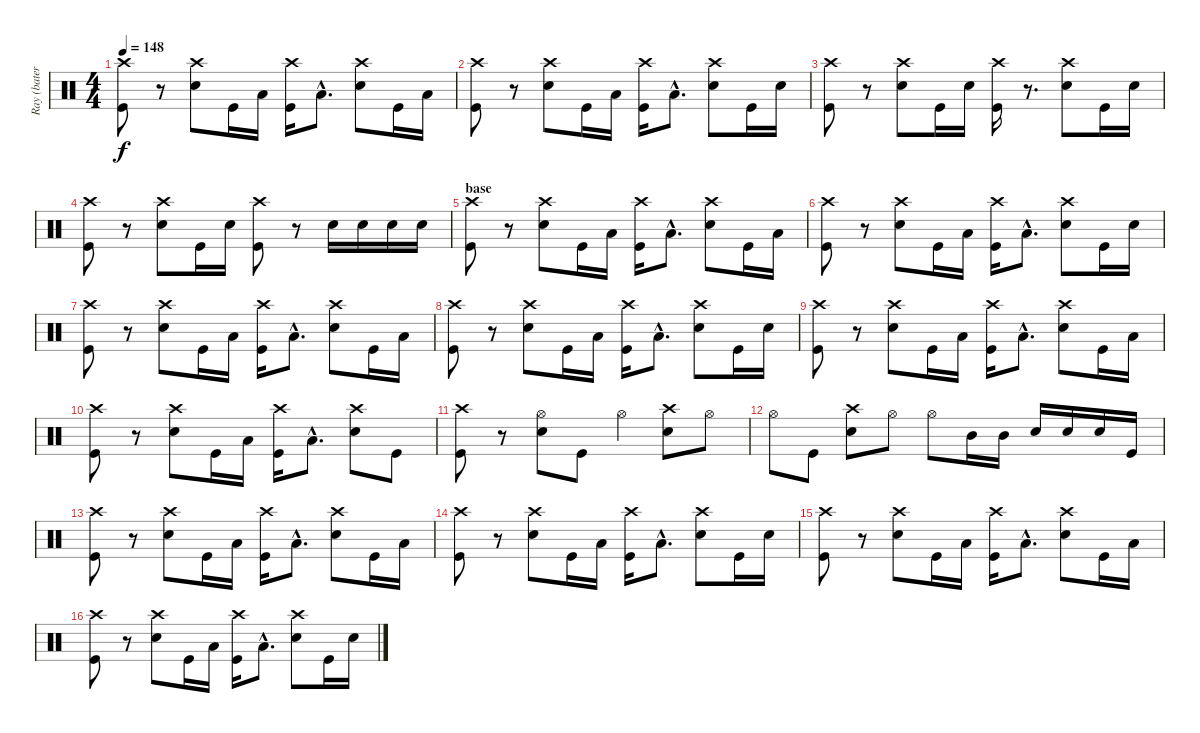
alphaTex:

\track ("Ray (batería)" "Ray (bater") {instrument percussion}
\staff {score}
\articulation defaults
\ts (4 4)
\tempo 148
\clef neutral
\ks c
("Crash high (hit)" "Kick (hit)").8{dy f} r.8 ("Crash high (hit)" "Snare (hit) 2").8 "Kick (hit)".16 "Low Tom (hit)".16 ("Crash high (hit)" "Kick (hit)").16 "Low Tom (hit)"{hac}.8{d} ("Crash high (hit)" "Snare (hit) 2").8 "Kick (hit)".16 "Low Tom (hit)".16 |
("Crash high (hit)" "Kick (hit)").8 r.8 ("Crash high (hit)" "Snare (hit) 2").8 "Kick (hit)".16 "Low Tom (hit)".16 ("Crash high (hit)" "Kick (hit)").16 "Low Tom (hit)"{hac}.8{d} ("Crash high (hit)" "Snare (hit) 2").8 "Kick (hit)".16 "Snare (hit) 2".16 |
("Crash high (hit)" "Kick (hit)").8 r.8 ("Crash high (hit)" "Snare (hit) 2").8 "Kick (hit)".16 "Snare (hit) 2".16 ("Crash high (hit)" "Kick (hit)").16 r.8{d} ("Crash high (hit)" "Snare (hit) 2").8 "Kick (hit)".16 "Snare (hit) 2".16 |
("Crash high (hit)" "Kick (hit)").8 r.8 ("Crash high (hit)" "Snare (hit) 2").8 "Kick (hit)".16 "Snare (hit) 2".16 ("Crash high (hit)" "Kick (hit)").8 r.8 "Snare (hit) 2".16 "Snare (hit) 2".16 "Snare (hit) 2".16 "Snare (hit) 2".16 |
\section ("" "base")
("Crash high (hit)" "Kick (hit)").8 r.8 ("Crash high (hit)" "Snare (hit) 2").8 "Kick (hit)".16 "Low Tom (hit)".16 ("Crash high (hit)" "Kick (hit)").16 "Low Tom (hit)"{hac}.8{d} ("Crash high (hit)" "Snare (hit) 2").8 "Kick (hit)".16 "Low Tom (hit)".16 |
("Crash high (hit)" "Kick (hit)").8 r.8 ("Crash high (hit)" "Snare (hit) 2").8 "Kick (hit)".16 "Low Tom (hit)".16 ("Crash high (hit)" "Kick (hit)").16 "Low Tom (hit)"{hac}.8{d} ("Crash high (hit)" "Snare (hit) 2").8 "Kick (hit)".16 "Snare (hit) 2".16 |
("Crash high (hit)" "Kick (hit)").8 r.8 ("Crash high (hit)" "Snare (hit) 2").8 "Kick (hit)".16 "Low Tom (hit)".16 ("Crash high (hit)" "Kick (hit)").16 "Low Tom (hit)"{hac}.8{d} ("Crash high (hit)" "Snare (hit) 2").8 "Kick (hit)".16 "Low Tom (hit)".16 |
("Crash high (hit)" "Kick (hit)").8 r.8 ("Crash high (hit)" "Snare (hit) 2").8 "Kick (hit)".16 "Low Tom (hit)".16 ("Crash high (hit)" "Kick (hit)").16 "Low Tom (hit)"{hac}.8{d} ("Crash high (hit)" "Snare (hit) 2").8 "Kick (hit)".16 "Snare (hit) 2".16 |
("Crash high (hit)" "Kick (hit)").8 r.8 ("Crash high (hit)" "Snare (hit) 2").8 "Kick (hit)".16 "Low Tom (hit)".16 ("Crash high (hit)" "Kick (hit)").16 "Low Tom (hit)"{hac}.8{d} ("Crash high (hit)" "Snare (hit) 2").8 "Kick (hit)".16 "Low Tom (hit)".16 |
("Crash high (hit)" "Kick (hit)").8 r.8 ("Crash high (hit)" "Snare (hit) 2").8 "Kick (hit)".16 "Low Tom (hit)".16 ("Crash high (hit)" "Kick (hit)").16 "Low Tom (hit)"{hac}.8{d} ("Crash high (hit)" "Snare (hit) 2").8 "Kick (hit)".8 |
("Crash high (hit)" "Kick (hit)").8 r.8 ("Hi-Hat (open)" "Snare (hit) 2").8 "Kick (hit)".8 "Hi-Hat (open)".4 ("Crash high (hit)" "Snare (hit) 2").8 "Hi-Hat (open)".8 |
"Hi-Hat (open)".8 "Kick (hit)".8 ("Crash high (hit)" "Snare (hit) 2").8 "Hi-Hat (open)".8 "Hi-Hat (open)".8 "Mid Tom (hit)".16 "Mid Tom (hit)".16 "Snare (hit) 2".16 "Snare (hit) 2".16 "Snare (hit) 2".16 "Kick (hit)".16 |
("Crash high (hit)" "Kick (hit)").8 r.8 ("Crash high (hit)" "Snare (hit) 2").8 "Kick (hit)".16 "Low Tom (hit)".16 ("Crash high (hit)" "Kick (hit)").16 "Low Tom (hit)"{hac}.8{d} ("Crash high (hit)" "Snare (hit) 2").8 "Kick (hit)".16 "Low Tom (hit)".16 |
("Crash high (hit)" "Kick (hit)").8 r.8 ("Crash high (hit)" "Snare (hit) 2").8 "Kick (hit)".16 "Low Tom (hit)".16 ("Crash high (hit)" "Kick (hit)").16 "Low Tom (hit)"{hac}.8{d} ("Crash high (hit)" "Snare (hit) 2").8 "Kick (hit)".16 "Snare (hit) 2".16 |
("Crash high (hit)" "Kick (hit)").8 r.8 ("Crash high (hit)" "Snare (hit) 2").8 "Kick (hit)".16 "Low Tom (hit)".16 ("Crash high (hit)" "Kick (hit)").16 "Low Tom (hit)"{hac}.8{d} ("Crash high (hit)" "Snare (hit) 2").8 "Kick (hit)".16 "Low Tom (hit)".16 |
("Crash high (hit)" "Kick (hit)").8 r.8 ("Crash high (hit)" "Snare (hit) 2").8 "Kick (hit)".16 "Low Tom (hit)".16 ("Crash high (hit)" "Kick (hit)").16 "Low Tom (hit)"{hac}.8{d} ("Crash high (hit)" "Snare (hit) 2").8 "Kick (hit)".16 "Snare (hit) 2".16
